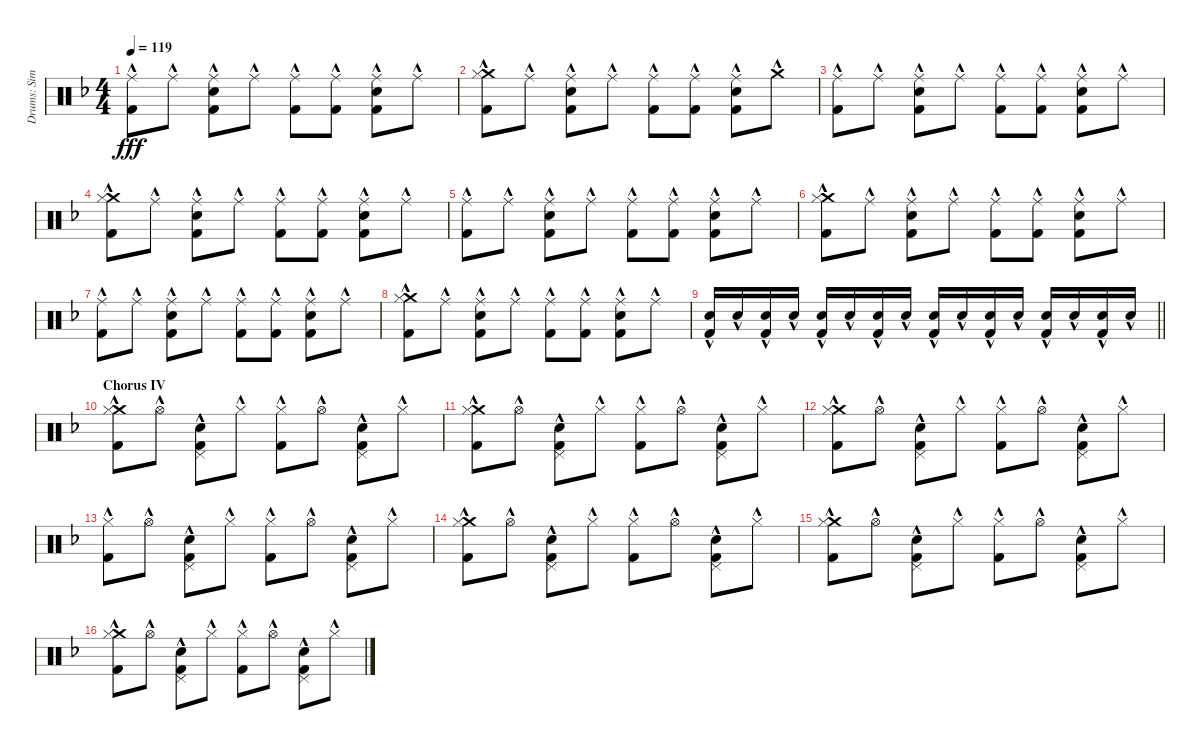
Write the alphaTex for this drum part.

\track ("Drums: Simon" "Drums: Sim") {instrument percussion}
\staff {score}
\articulation defaults
\ts (4 4)
\tempo 119
\clef neutral
\ks f
("Ride (middle)"{hac} "Kick (hit) 2"{hac}).8{dy fff} "Ride (middle)"{hac}.8 ("Ride (middle)"{hac} "Snare (hit) 2"{hac} "Kick (hit) 2"{hac}).8 "Ride (middle)"{hac}.8 ("Ride (middle)"{hac} "Kick (hit) 2"{hac}).8 ("Ride (middle)"{hac} "Kick (hit) 2"{hac}).8 ("Ride (middle)"{hac} "Snare (hit) 2"{hac} "Kick (hit) 2"{hac}).8 "Ride (middle)"{hac}.8 |
("Crash medium (hit)"{hac} "Hi-Hat (closed)"{hac} "Kick (hit) 2"{hac}).8 "Ride (middle)"{hac}.8 ("Ride (middle)"{hac} "Snare (hit) 2"{hac} "Kick (hit) 2"{hac}).8 "Ride (middle)"{hac}.8 ("Ride (middle)"{hac} "Kick (hit) 2"{hac}).8 ("Ride (middle)"{hac} "Kick (hit) 2"{hac}).8 ("Ride (middle)"{hac} "Snare (hit) 2"{hac} "Kick (hit) 2"{hac}).8 "Crash medium (hit)"{hac}.8 |
("Ride (middle)"{hac} "Kick (hit) 2"{hac}).8 "Ride (middle)"{hac}.8 ("Ride (middle)"{hac} "Snare (hit) 2"{hac} "Kick (hit) 2"{hac}).8 "Ride (middle)"{hac}.8 ("Ride (middle)"{hac} "Kick (hit) 2"{hac}).8 ("Ride (middle)"{hac} "Kick (hit) 2"{hac}).8 ("Ride (middle)"{hac} "Snare (hit) 2"{hac} "Kick (hit) 2"{hac}).8 "Ride (middle)"{hac}.8 |
("Crash medium (hit)"{hac} "Hi-Hat (closed)"{hac} "Kick (hit) 2"{hac}).8 "Ride (middle)"{hac}.8 ("Ride (middle)"{hac} "Snare (hit) 2"{hac} "Kick (hit) 2"{hac}).8 "Ride (middle)"{hac}.8 ("Ride (middle)"{hac} "Kick (hit) 2"{hac}).8 ("Ride (middle)"{hac} "Kick (hit) 2"{hac}).8 ("Ride (middle)"{hac} "Snare (hit) 2"{hac} "Kick (hit) 2"{hac}).8 "Ride (middle)"{hac}.8 |
("Ride (middle)"{hac} "Kick (hit) 2"{hac}).8 "Ride (middle)"{hac}.8 ("Ride (middle)"{hac} "Snare (hit) 2"{hac} "Kick (hit) 2"{hac}).8 "Ride (middle)"{hac}.8 ("Ride (middle)"{hac} "Kick (hit) 2"{hac}).8 ("Ride (middle)"{hac} "Kick (hit) 2"{hac}).8 ("Ride (middle)"{hac} "Snare (hit) 2"{hac} "Kick (hit) 2"{hac}).8 "Ride (middle)"{hac}.8 |
("Crash medium (hit)"{hac} "Hi-Hat (closed)"{hac} "Kick (hit) 2"{hac}).8 "Ride (middle)"{hac}.8 ("Ride (middle)"{hac} "Snare (hit) 2"{hac} "Kick (hit) 2"{hac}).8 "Ride (middle)"{hac}.8 ("Ride (middle)"{hac} "Kick (hit) 2"{hac}).8 ("Ride (middle)"{hac} "Kick (hit) 2"{hac}).8 ("Ride (middle)"{hac} "Snare (hit) 2"{hac} "Kick (hit) 2"{hac}).8 "Ride (middle)"{hac}.8 |
("Ride (middle)"{hac} "Kick (hit) 2"{hac}).8 "Ride (middle)"{hac}.8 ("Ride (middle)"{hac} "Snare (hit) 2"{hac} "Kick (hit) 2"{hac}).8 "Ride (middle)"{hac}.8 ("Ride (middle)"{hac} "Kick (hit) 2"{hac}).8 ("Ride (middle)"{hac} "Kick (hit) 2"{hac}).8 ("Ride (middle)"{hac} "Snare (hit) 2"{hac} "Kick (hit) 2"{hac}).8 "Ride (middle)"{hac}.8 |
("Crash medium (hit)"{hac} "Hi-Hat (closed)"{hac} "Kick (hit) 2"{hac}).8 "Ride (middle)"{hac}.8 ("Ride (middle)"{hac} "Snare (hit) 2"{hac} "Kick (hit) 2"{hac}).8 "Ride (middle)"{hac}.8 ("Ride (middle)"{hac} "Kick (hit) 2"{hac}).8 ("Ride (middle)"{hac} "Kick (hit) 2"{hac}).8 ("Ride (middle)"{hac} "Snare (hit) 2"{hac} "Kick (hit) 2"{hac}).8 "Ride (middle)"{hac}.8 |
\barLineRight lightlight
("Snare (hit) 2"{hac} "Kick (hit) 2"{hac}).16 "Snare (hit) 2"{hac}.16 ("Snare (hit) 2"{hac} "Kick (hit) 2"{hac}).16 "Snare (hit) 2"{hac}.16 ("Snare (hit) 2"{hac} "Kick (hit) 2"{hac}).16 "Snare (hit) 2"{hac}.16 ("Snare (hit) 2"{hac} "Kick (hit) 2"{hac}).16 "Snare (hit) 2"{hac}.16 ("Snare (hit) 2"{hac} "Kick (hit) 2"{hac}).16 "Snare (hit) 2"{hac}.16 ("Snare (hit) 2"{hac} "Kick (hit) 2"{hac}).16 "Snare (hit) 2"{hac}.16 ("Snare (hit) 2"{hac} "Kick (hit) 2"{hac}).16 "Snare (hit) 2"{hac}.16 ("Snare (hit) 2"{hac} "Kick (hit) 2"{hac}).16 "Snare (hit) 2"{hac}.16 |
\section ("" "Chorus IV")
("Crash medium (hit)"{hac} "Hi-Hat (closed)"{hac} "Kick (hit) 2"{hac}).8 "Hi-Hat (open)"{hac}.8 ("Pedal Hi-Hat (hit)"{hac} "Snare (hit) 2"{hac} "Kick (hit) 2"{hac}).8 "Hi-Hat (closed)"{hac}.8 ("Hi-Hat (closed)"{hac} "Kick (hit) 2"{hac}).8 "Hi-Hat (open)"{hac}.8 ("Pedal Hi-Hat (hit)"{hac} "Snare (hit) 2"{hac} "Kick (hit) 2"{hac}).8 "Hi-Hat (closed)"{hac}.8 |
("Crash medium (hit)"{hac} "Hi-Hat (closed)"{hac} "Kick (hit) 2"{hac}).8 "Hi-Hat (open)"{hac}.8 ("Pedal Hi-Hat (hit)"{hac} "Snare (hit) 2"{hac} "Kick (hit) 2"{hac}).8 "Hi-Hat (closed)"{hac}.8 ("Hi-Hat (closed)"{hac} "Kick (hit) 2"{hac}).8 "Hi-Hat (open)"{hac}.8 ("Pedal Hi-Hat (hit)"{hac} "Snare (hit) 2"{hac} "Kick (hit) 2"{hac}).8 "Hi-Hat (closed)"{hac}.8 |
("Crash medium (hit)"{hac} "Hi-Hat (closed)"{hac} "Kick (hit) 2"{hac}).8 "Hi-Hat (open)"{hac}.8 ("Pedal Hi-Hat (hit)"{hac} "Snare (hit) 2"{hac} "Kick (hit) 2"{hac}).8 "Hi-Hat (closed)"{hac}.8 ("Hi-Hat (closed)"{hac} "Kick (hit) 2"{hac}).8 "Hi-Hat (open)"{hac}.8 ("Pedal Hi-Hat (hit)"{hac} "Snare (hit) 2"{hac} "Kick (hit) 2"{hac}).8 "Hi-Hat (closed)"{hac}.8 |
("Hi-Hat (closed)"{hac} "Kick (hit) 2"{hac}).8 "Hi-Hat (open)"{hac}.8 ("Pedal Hi-Hat (hit)"{hac} "Snare (hit) 2"{hac} "Kick (hit) 2"{hac}).8 "Hi-Hat (closed)"{hac}.8 ("Hi-Hat (closed)"{hac} "Kick (hit) 2"{hac}).8 "Hi-Hat (open)"{hac}.8 ("Pedal Hi-Hat (hit)"{hac} "Snare (hit) 2"{hac} "Kick (hit) 2"{hac}).8 "Hi-Hat (closed)"{hac}.8 |
("Crash medium (hit)"{hac} "Hi-Hat (closed)"{hac} "Kick (hit) 2"{hac}).8 "Hi-Hat (open)"{hac}.8 ("Pedal Hi-Hat (hit)"{hac} "Snare (hit) 2"{hac} "Kick (hit) 2"{hac}).8 "Hi-Hat (closed)"{hac}.8 ("Hi-Hat (closed)"{hac} "Kick (hit) 2"{hac}).8 "Hi-Hat (open)"{hac}.8 ("Pedal Hi-Hat (hit)"{hac} "Snare (hit) 2"{hac} "Kick (hit) 2"{hac}).8 "Hi-Hat (closed)"{hac}.8 |
("Crash medium (hit)"{hac} "Hi-Hat (closed)"{hac} "Kick (hit) 2"{hac}).8 "Hi-Hat (open)"{hac}.8 ("Pedal Hi-Hat (hit)"{hac} "Snare (hit) 2"{hac} "Kick (hit) 2"{hac}).8 "Hi-Hat (closed)"{hac}.8 ("Hi-Hat (closed)"{hac} "Kick (hit) 2"{hac}).8 "Hi-Hat (open)"{hac}.8 ("Pedal Hi-Hat (hit)"{hac} "Snare (hit) 2"{hac} "Kick (hit) 2"{hac}).8 "Hi-Hat (closed)"{hac}.8 |
("Crash medium (hit)"{hac} "Hi-Hat (closed)"{hac} "Kick (hit) 2"{hac}).8 "Hi-Hat (open)"{hac}.8 ("Pedal Hi-Hat (hit)"{hac} "Snare (hit) 2"{hac} "Kick (hit) 2"{hac}).8 "Hi-Hat (closed)"{hac}.8 ("Hi-Hat (closed)"{hac} "Kick (hit) 2"{hac}).8 "Hi-Hat (open)"{hac}.8 ("Pedal Hi-Hat (hit)"{hac} "Snare (hit) 2"{hac} "Kick (hit) 2"{hac}).8 "Hi-Hat (closed)"{hac}.8
